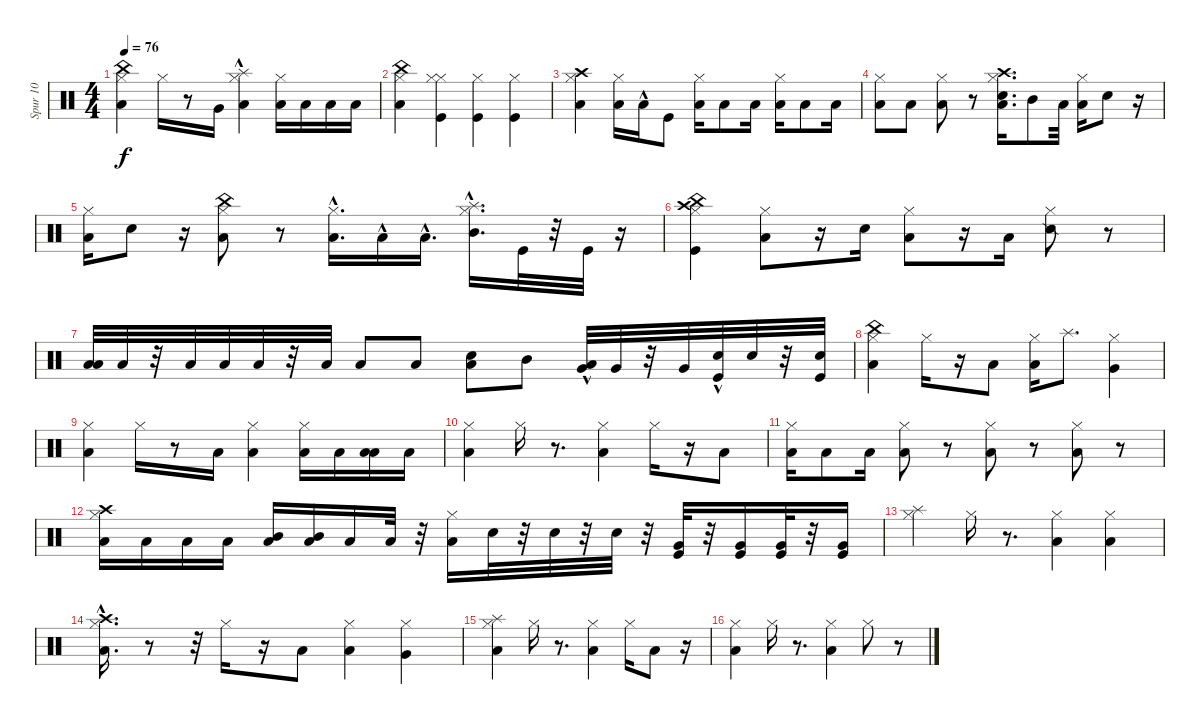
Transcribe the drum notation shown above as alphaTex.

\track ("Spur 10" "Spur 10") {instrument percussion}
\staff {score}
\articulation defaults
\ts (4 4)
\tempo 76
\clef neutral
\ks c
("Hi-Hat (closed)" "Low Floor Tom (hit)" "China (hit)").4{dy f} "Hi-Hat (closed)".16 r.8 "Very Low Tom (hit)".16 ("Hi-Hat (closed)" "Splash (hit)" "Low Floor Tom (hit)"{hac}).4 ("Hi-Hat (closed)" "Low Tom (hit)").16 "Low Tom (hit)".16 "Low Tom (hit)".16 "Low Tom (hit)".16 |
("Hi-Hat (closed)" "Low Floor Tom (hit)" "China (hit)").4 ("Hi-Hat (closed)" "Kick (hit)" "Hi-Hat (closed)").4 ("Hi-Hat (closed)" "Kick (hit)").4 ("Hi-Hat (closed)" "Kick (hit)").4 |
("Hi-Hat (closed)" "Low Floor Tom (hit)" "Crash high (hit)").4 ("Hi-Hat (closed)" "Low Tom (hit)").16 "Low Tom (hit)"{hac}.16 "Kick (hit)".8 ("Hi-Hat (closed)" "Low Floor Tom (hit)").16 "Low Floor Tom (hit)".8 "Low Floor Tom (hit)".16 ("Hi-Hat (closed)" "Low Tom (hit)").16 "Low Tom (hit)".8 "Low Tom (hit)".16 |
("Hi-Hat (closed)" "Low Floor Tom (hit)").8 "Low Floor Tom (hit)".8 ("Hi-Hat (closed)" "Low Tom (hit)").8 r.8 ("Hi-Hat (closed)" "Snare (hit) 2" "Low Floor Tom (hit)" "Crash high (hit)").16{d} "Mid Tom (hit)".8 "Low Floor Tom (hit)".32 ("Hi-Hat (closed)" "Low Floor Tom (hit)").16 "Snare (hit) 2".8 r.16 |
("Hi-Hat (closed)" "Low Tom (hit)").16 "Snare (hit) 2".8 r.16 ("Hi-Hat (closed)" "China (hit)" "Low Floor Tom (hit)").8 r.8 ("Hi-Hat (closed)" "Low Floor Tom (hit)"{hac}).16{d} "Low Floor Tom (hit)"{hac}.16 "Low Floor Tom (hit)"{hac}.16{d} ("Hi-Hat (closed)" "Splash (hit)" "Mid Tom (hit)"{hac}).16{d} "Kick (hit)".32 r.32 "Kick (hit)".32 r.16 |
("Hi-Hat (closed)" "China (hit)" "Kick (hit)" "Crash high (hit)").4 ("Hi-Hat (closed)" "Low Tom (hit)").8 r.16 "Snare (hit) 2".16 ("Hi-Hat (closed)" "Low Floor Tom (hit)").8 r.16 "Low Tom (hit)".16 ("Snare (side stick) 2" "Hi-Hat (closed)").8 r.8 |
("Low Tom (hit)" "Low Floor Tom (hit)").32 "Low Tom (hit)".32 r.32 "Low Tom (hit)".32 "Low Tom (hit)".32 "Low Tom (hit)".32 r.32 "Low Tom (hit)".32 "Low Floor Tom (hit)".8 "Low Floor Tom (hit)".8 ("Snare (hit) 2" "Low Floor Tom (hit)").8 "Mid Tom (hit)".8 ("Very Low Tom (hit)" "Low Floor Tom (hit)"{hac}).32 "Very Low Tom (hit)".32 r.32 "Very Low Tom (hit)".32 ("Snare (hit) 2" "Kick (hit)"{hac}).32 "Snare (hit) 2".32 r.32 ("Snare (hit) 2" "Kick (hit)").32 |
("Hi-Hat (closed)" "China (hit)" "Low Floor Tom (hit)").4 "Hi-Hat (closed)".16 r.16 "Low Floor Tom (hit)".8 ("Hi-Hat (closed)" "Low Tom (hit)").16 "Splash (hit)".8{d} ("Hi-Hat (closed)" "Very Low Tom (hit)").4 |
("Hi-Hat (closed)" "Low Floor Tom (hit)").4 "Hi-Hat (closed)".16 r.8 "Low Tom (hit)".16 ("Hi-Hat (closed)" "Low Floor Tom (hit)").4 ("Hi-Hat (closed)" "Low Floor Tom (hit)").16 "Low Floor Tom (hit)".16 ("Low Floor Tom (hit)" "Low Floor Tom (hit)").16 "Low Floor Tom (hit)".16 |
("Hi-Hat (closed)" "Low Floor Tom (hit)").4 "Hi-Hat (closed)".16 r.8{d} ("Hi-Hat (closed)" "Low Floor Tom (hit)").4 "Hi-Hat (closed)".16 r.16 "Low Floor Tom (hit)".8 |
("Hi-Hat (closed)" "Low Tom (hit)").16 "Low Tom (hit)".8 "Low Tom (hit)".16 ("Hi-Hat (closed)" "Low Floor Tom (hit)").8 r.8 ("Hi-Hat (closed)" "Low Floor Tom (hit)").8 r.8 ("Hi-Hat (closed)" "Low Floor Tom (hit)").8 r.8 |
("Hi-Hat (closed)" "Low Tom (hit)" "Crash high (hit)").16 "Low Tom (hit)".16 "Low Tom (hit)".16 "Low Floor Tom (hit)".16 ("Mid Tom (hit)" "Low Tom (hit)").16 ("Mid Tom (hit)" "Low Tom (hit)").16 "Low Floor Tom (hit)".16 "Low Floor Tom (hit)".32 r.32 ("Hi-Hat (closed)" "Low Floor Tom (hit)").16 "Snare (hit) 2".32 r.32 "Snare (hit) 2".32 r.32 "Snare (hit) 2".32 r.32 ("Kick (hit)" "Very Low Tom (hit)").32 r.32 ("Kick (hit)" "Very Low Tom (hit)").16 ("Kick (hit)" "Very Low Tom (hit)").32 r.32 ("Kick (hit)" "Very Low Tom (hit)").16 |
("Hi-Hat (closed)" "Splash (hit)").4 "Hi-Hat (closed)".16 r.8{d} ("Hi-Hat (closed)" "Low Tom (hit)").4 ("Hi-Hat (closed)" "Low Tom (hit)").4 |
("Hi-Hat (closed)"{hac} "Crash high (hit)"{hac} "Low Floor Tom (hit)"{hac}).16{d} r.8 r.32 "Hi-Hat (closed)".16 r.16 "Low Floor Tom (hit)".8 ("Hi-Hat (closed)" "Low Floor Tom (hit)").4 ("Hi-Hat (closed)" "Very Low Tom (hit)").4 |
("Hi-Hat (closed)" "Splash (hit)" "Low Floor Tom (hit)").4 "Hi-Hat (closed)".16 r.8{d} ("Hi-Hat (closed)" "Low Floor Tom (hit)").4 "Hi-Hat (closed)".16 "Low Floor Tom (hit)".8 r.16 |
("Hi-Hat (closed)" "Low Floor Tom (hit)").4 "Hi-Hat (closed)".16 r.8{d} ("Hi-Hat (closed)" "Low Floor Tom (hit)").4 "Hi-Hat (closed)".8 r.8
